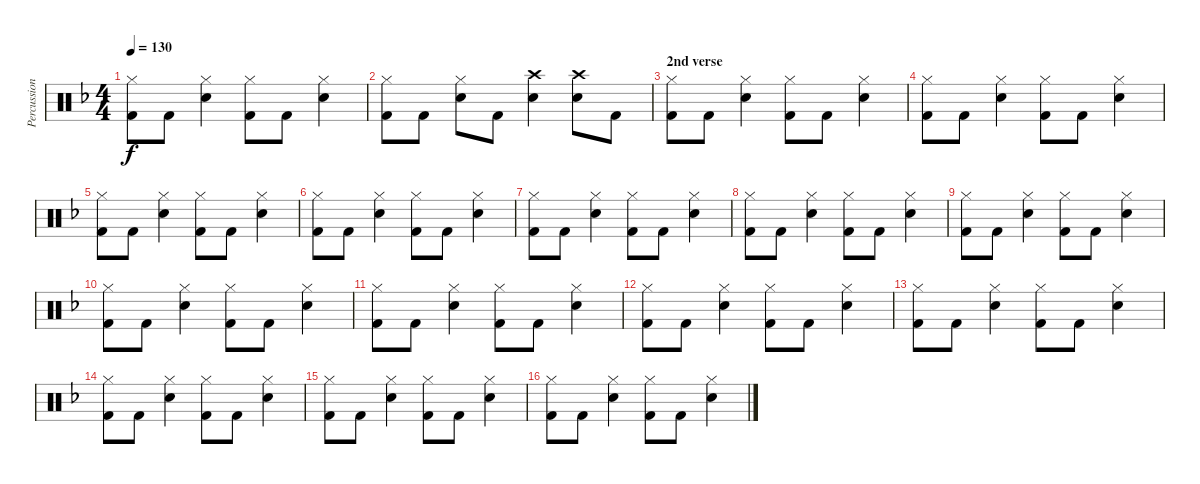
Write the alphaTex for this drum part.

\track ("Percussion" "Percussion") {instrument percussion}
\staff {score}
\articulation defaults
\ts (4 4)
\tempo 130
\clef neutral
\ks dminor
("Hi-Hat (closed)" "Kick (hit) 2").8{dy f} "Kick (hit) 2".8 ("Hi-Hat (closed)" "Snare (hit) 2").4 ("Hi-Hat (closed)" "Kick (hit) 2").8 "Kick (hit) 2".8 ("Hi-Hat (closed)" "Snare (hit) 2").4 |
("Hi-Hat (closed)" "Kick (hit) 2").8 "Kick (hit) 2".8 ("Hi-Hat (closed)" "Snare (hit) 2").8 "Kick (hit) 2".8 ("Crash high (hit)" "Snare (hit) 2").4 ("Crash high (hit)" "Snare (hit) 2").8 "Kick (hit) 2".8 |
\section ("" "2nd verse")
("Hi-Hat (closed)" "Kick (hit) 2").8 "Kick (hit) 2".8 ("Hi-Hat (closed)" "Snare (hit) 2").4 ("Hi-Hat (closed)" "Kick (hit) 2").8 "Kick (hit) 2".8 ("Hi-Hat (closed)" "Snare (hit) 2").4 |
("Hi-Hat (closed)" "Kick (hit) 2").8 "Kick (hit) 2".8 ("Hi-Hat (closed)" "Snare (hit) 2").4 ("Hi-Hat (closed)" "Kick (hit) 2").8 "Kick (hit) 2".8 ("Hi-Hat (closed)" "Snare (hit) 2").4 |
("Hi-Hat (closed)" "Kick (hit) 2").8 "Kick (hit) 2".8 ("Hi-Hat (closed)" "Snare (hit) 2").4 ("Hi-Hat (closed)" "Kick (hit) 2").8 "Kick (hit) 2".8 ("Hi-Hat (closed)" "Snare (hit) 2").4 |
("Hi-Hat (closed)" "Kick (hit) 2").8 "Kick (hit) 2".8 ("Hi-Hat (closed)" "Snare (hit) 2").4 ("Hi-Hat (closed)" "Kick (hit) 2").8 "Kick (hit) 2".8 ("Hi-Hat (closed)" "Snare (hit) 2").4 |
("Hi-Hat (closed)" "Kick (hit) 2").8 "Kick (hit) 2".8 ("Hi-Hat (closed)" "Snare (hit) 2").4 ("Hi-Hat (closed)" "Kick (hit) 2").8 "Kick (hit) 2".8 ("Hi-Hat (closed)" "Snare (hit) 2").4 |
("Hi-Hat (closed)" "Kick (hit) 2").8 "Kick (hit) 2".8 ("Hi-Hat (closed)" "Snare (hit) 2").4 ("Hi-Hat (closed)" "Kick (hit) 2").8 "Kick (hit) 2".8 ("Hi-Hat (closed)" "Snare (hit) 2").4 |
("Hi-Hat (closed)" "Kick (hit) 2").8 "Kick (hit) 2".8 ("Hi-Hat (closed)" "Snare (hit) 2").4 ("Hi-Hat (closed)" "Kick (hit) 2").8 "Kick (hit) 2".8 ("Hi-Hat (closed)" "Snare (hit) 2").4 |
("Hi-Hat (closed)" "Kick (hit) 2").8 "Kick (hit) 2".8 ("Hi-Hat (closed)" "Snare (hit) 2").4 ("Hi-Hat (closed)" "Kick (hit) 2").8 "Kick (hit) 2".8 ("Hi-Hat (closed)" "Snare (hit) 2").4 |
("Hi-Hat (closed)" "Kick (hit) 2").8 "Kick (hit) 2".8 ("Hi-Hat (closed)" "Snare (hit) 2").4 ("Hi-Hat (closed)" "Kick (hit) 2").8 "Kick (hit) 2".8 ("Hi-Hat (closed)" "Snare (hit) 2").4 |
("Hi-Hat (closed)" "Kick (hit) 2").8 "Kick (hit) 2".8 ("Hi-Hat (closed)" "Snare (hit) 2").4 ("Hi-Hat (closed)" "Kick (hit) 2").8 "Kick (hit) 2".8 ("Hi-Hat (closed)" "Snare (hit) 2").4 |
("Hi-Hat (closed)" "Kick (hit) 2").8 "Kick (hit) 2".8 ("Hi-Hat (closed)" "Snare (hit) 2").4 ("Hi-Hat (closed)" "Kick (hit) 2").8 "Kick (hit) 2".8 ("Hi-Hat (closed)" "Snare (hit) 2").4 |
("Hi-Hat (closed)" "Kick (hit) 2").8 "Kick (hit) 2".8 ("Hi-Hat (closed)" "Snare (hit) 2").4 ("Hi-Hat (closed)" "Kick (hit) 2").8 "Kick (hit) 2".8 ("Hi-Hat (closed)" "Snare (hit) 2").4 |
("Hi-Hat (closed)" "Kick (hit) 2").8 "Kick (hit) 2".8 ("Hi-Hat (closed)" "Snare (hit) 2").4 ("Hi-Hat (closed)" "Kick (hit) 2").8 "Kick (hit) 2".8 ("Hi-Hat (closed)" "Snare (hit) 2").4 |
("Hi-Hat (closed)" "Kick (hit) 2").8 "Kick (hit) 2".8 ("Hi-Hat (closed)" "Snare (hit) 2").4 ("Hi-Hat (closed)" "Kick (hit) 2").8 "Kick (hit) 2".8 ("Hi-Hat (closed)" "Snare (hit) 2").4
